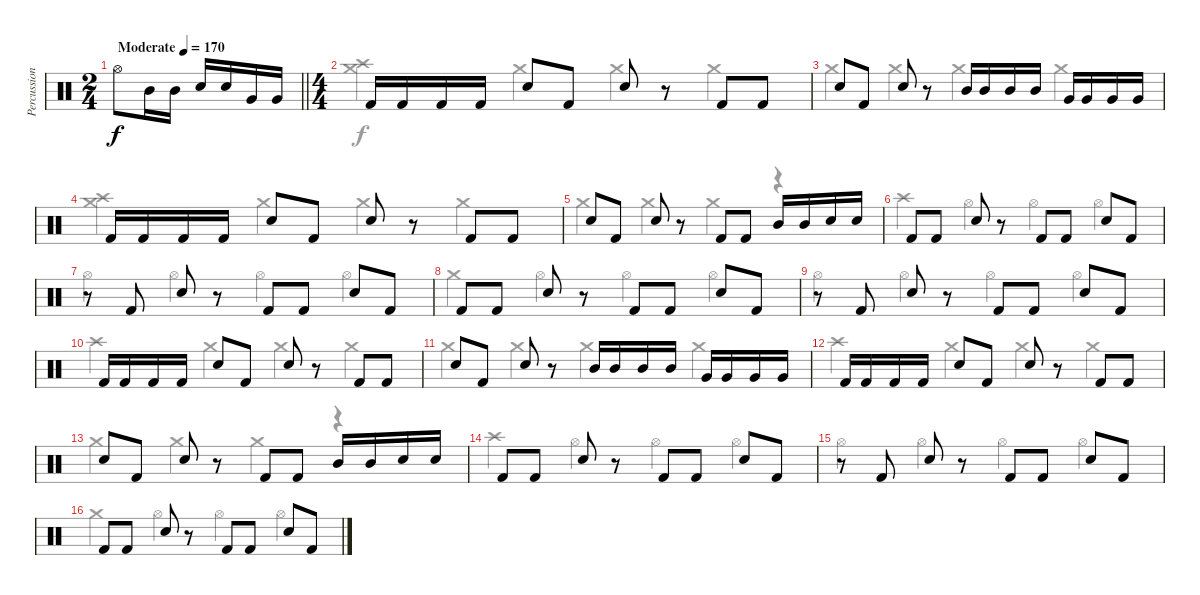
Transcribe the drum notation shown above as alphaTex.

\track ("Percussion" "Percussion") {instrument percussion}
\staff {score}
\articulation defaults
\voice
\ts (2 4)
\tempo (170 "Moderate")
\clef neutral
\barLineRight lightlight
\ks c "Hi-Hat (open)".8{dy f} "Mid Tom (hit)".16 "Mid Tom (hit)".16 "Snare (hit) 2".16 "Snare (hit) 2".16 "Very Low Tom (hit)".16 "Very Low Tom (hit)".16
|
\ts (4 4)
"Kick (hit) 2".16 "Kick (hit) 2".16 "Kick (hit) 2".16 "Kick (hit) 2".16 "Snare (hit) 2".8 "Kick (hit) 2".8 "Snare (hit) 2".8 r.8 "Kick (hit) 2".8 "Kick (hit) 2".8 |
"Snare (hit) 2".8 "Kick (hit) 2".8 "Snare (hit) 2".8 r.8 "Mid Tom (hit)".16 "Mid Tom (hit)".16 "Mid Tom (hit)".16 "Mid Tom (hit)".16 "Very Low Tom (hit)".16 "Very Low Tom (hit)".16 "Very Low Tom (hit)".16 "Very Low Tom (hit)".16 |
"Kick (hit) 2".16 "Kick (hit) 2".16 "Kick (hit) 2".16 "Kick (hit) 2".16 "Snare (hit) 2".8 "Kick (hit) 2".8 "Snare (hit) 2".8 r.8 "Kick (hit) 2".8 "Kick (hit) 2".8 |
"Snare (hit) 2".8 "Kick (hit) 2".8 "Snare (hit) 2".8 r.8 "Kick (hit) 2".8 "Kick (hit) 2".8 "Mid Tom (hit)".16 "Mid Tom (hit)".16 "Snare (hit) 2".16 "Snare (hit) 2".16 |
"Kick (hit) 2".8 "Kick (hit) 2".8 "Snare (hit) 2".8 r.8 "Kick (hit) 2".8 "Kick (hit) 2".8 "Snare (hit) 2".8 "Kick (hit) 2".8 |
r.8 "Kick (hit) 2".8 "Snare (hit) 2".8 r.8 "Kick (hit) 2".8 "Kick (hit) 2".8 "Snare (hit) 2".8 "Kick (hit) 2".8 |
"Kick (hit) 2".8 "Kick (hit) 2".8 "Snare (hit) 2".8 r.8 "Kick (hit) 2".8 "Kick (hit) 2".8 "Snare (hit) 2".8 "Kick (hit) 2".8 |
r.8 "Kick (hit) 2".8 "Snare (hit) 2".8 r.8 "Kick (hit) 2".8 "Kick (hit) 2".8 "Snare (hit) 2".8 "Kick (hit) 2".8 |
"Kick (hit) 2".16 "Kick (hit) 2".16 "Kick (hit) 2".16 "Kick (hit) 2".16 "Snare (hit) 2".8 "Kick (hit) 2".8 "Snare (hit) 2".8 r.8 "Kick (hit) 2".8 "Kick (hit) 2".8 |
"Snare (hit) 2".8 "Kick (hit) 2".8 "Snare (hit) 2".8 r.8 "Mid Tom (hit)".16 "Mid Tom (hit)".16 "Mid Tom (hit)".16 "Mid Tom (hit)".16 "Very Low Tom (hit)".16 "Very Low Tom (hit)".16 "Very Low Tom (hit)".16 "Very Low Tom (hit)".16 |
"Kick (hit) 2".16 "Kick (hit) 2".16 "Kick (hit) 2".16 "Kick (hit) 2".16 "Snare (hit) 2".8 "Kick (hit) 2".8 "Snare (hit) 2".8 r.8 "Kick (hit) 2".8 "Kick (hit) 2".8 |
"Snare (hit) 2".8 "Kick (hit) 2".8 "Snare (hit) 2".8 r.8 "Kick (hit) 2".8 "Kick (hit) 2".8 "Mid Tom (hit)".16 "Mid Tom (hit)".16 "Snare (hit) 2".16 "Snare (hit) 2".16 |
"Kick (hit) 2".8 "Kick (hit) 2".8 "Snare (hit) 2".8 r.8 "Kick (hit) 2".8 "Kick (hit) 2".8 "Snare (hit) 2".8 "Kick (hit) 2".8 |
r.8 "Kick (hit) 2".8 "Snare (hit) 2".8 r.8 "Kick (hit) 2".8 "Kick (hit) 2".8 "Snare (hit) 2".8 "Kick (hit) 2".8 |
"Kick (hit) 2".8 "Kick (hit) 2".8 "Snare (hit) 2".8 r.8 "Kick (hit) 2".8 "Kick (hit) 2".8 "Snare (hit) 2".8 "Kick (hit) 2".8
\voice
\clef neutral
\ottava regular
\simile none
\barLineRight lightlight
\ks c
|
("Crash medium (hit)" "Crash high (hit)").4 "Crash medium (hit)".4 "Crash medium (hit)".4 "Crash medium (hit)".4 |
"Crash medium (hit)".4 "Crash medium (hit)".4 "Crash medium (hit)".4 "Crash medium (hit)".4 |
("Crash medium (hit)" "Crash high (hit)").4 "Crash medium (hit)".4 "Crash medium (hit)".4 "Crash medium (hit)".4 |
"Crash medium (hit)".4 "Crash medium (hit)".4 "Crash medium (hit)".4 r.4 |
"Crash high (hit)".4 "Hi-Hat (open)".4 "Hi-Hat (open)".4 "Hi-Hat (open)".4 |
"Hi-Hat (open)".4 "Hi-Hat (open)".4 "Hi-Hat (open)".4 "Hi-Hat (open)".4 |
"Crash medium (hit)".4 "Hi-Hat (open)".4 "Hi-Hat (open)".4 "Hi-Hat (open)".4 |
"Hi-Hat (open)".4 "Hi-Hat (open)".4 "Hi-Hat (open)".4 "Hi-Hat (open)".4 |
"Crash high (hit)".4 "Crash medium (hit)".4 "Crash medium (hit)".4 "Crash medium (hit)".4 |
"Crash medium (hit)".4 "Crash medium (hit)".4 "Crash medium (hit)".4 "Crash medium (hit)".4 |
"Crash high (hit)".4 "Crash medium (hit)".4 "Crash medium (hit)".4 "Crash medium (hit)".4 |
"Crash medium (hit)".4 "Crash medium (hit)".4 "Crash medium (hit)".4 r.4 |
"Crash high (hit)".4 "Hi-Hat (open)".4 "Hi-Hat (open)".4 "Hi-Hat (open)".4 |
"Hi-Hat (open)".4 "Hi-Hat (open)".4 "Hi-Hat (open)".4 "Hi-Hat (open)".4 |
"Crash medium (hit)".4 "Hi-Hat (open)".4 "Hi-Hat (open)".4 "Hi-Hat (open)".4
